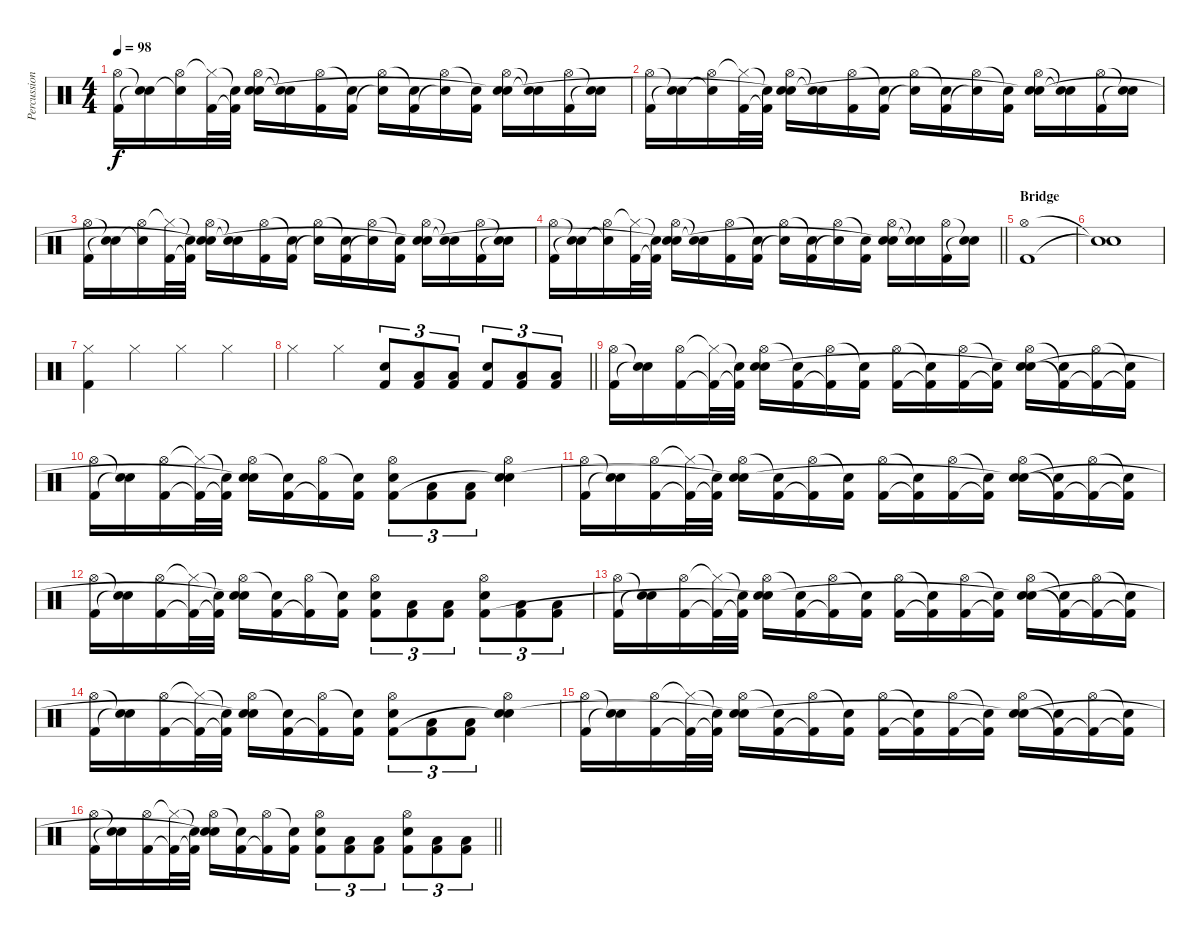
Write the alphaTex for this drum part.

\track ("Percussion" "Percussion") {instrument percussion}
\staff {score}
\articulation defaults
\ts (4 4)
\tempo 98
\clef neutral
\ks c
("Hi-Hat (open)" "Kick (hit) 2").16{dy f} ("Snare (hit)"{t} "Snare (hit)"{t}).16 ("Hi-Hat (open)" "Snare (hit)"{t}).16 ("Hi-Hat (closed)"{t} "Kick (hit) 2").32 ("Snare (hit)"{t} "Kick (hit) 2"{t}).32 ("Hi-Hat (open)" "Electric Snare (hit)" "Snare (hit)"{t}).16 ("Snare (hit)"{t} "Snare (hit)"{t}).16 ("Hi-Hat (open)" "Kick (hit) 2").16 ("Snare (hit)"{t} "Kick (hit) 2").16 ("Hi-Hat (open)" "Snare (hit)"{t}).16 ("Snare (hit)"{t} "Kick (hit) 2").16 ("Hi-Hat (open)" "Snare (hit)"{t}).16 ("Snare (hit)"{t} "Kick (hit) 2").16 ("Hi-Hat (open)" "Electric Snare (hit)" "Snare (hit)"{t}).16 ("Snare (hit)"{t} "Snare (hit)"{t}).16 ("Hi-Hat (open)" "Kick (hit) 2").16 ("Snare (hit)"{t} "Snare (hit)"{t}).16 |
("Hi-Hat (open)" "Kick (hit) 2").16 ("Snare (hit)"{t} "Snare (hit)"{t}).16 ("Hi-Hat (open)" "Snare (hit)"{t}).16 ("Hi-Hat (closed)"{t} "Kick (hit) 2").32 ("Snare (hit)"{t} "Kick (hit) 2"{t}).32 ("Hi-Hat (open)" "Electric Snare (hit)" "Snare (hit)"{t}).16 ("Snare (hit)"{t} "Snare (hit)"{t}).16 ("Hi-Hat (open)" "Kick (hit) 2").16 ("Snare (hit)"{t} "Kick (hit) 2").16 ("Hi-Hat (open)" "Snare (hit)"{t}).16 ("Snare (hit)"{t} "Kick (hit) 2").16 ("Hi-Hat (open)" "Snare (hit)"{t}).16 ("Snare (hit)"{t} "Kick (hit) 2").16 ("Hi-Hat (open)" "Electric Snare (hit)" "Snare (hit)"{t}).16 ("Snare (hit)"{t} "Snare (hit)"{t}).16 ("Hi-Hat (open)" "Kick (hit) 2").16 ("Snare (hit)"{t} "Snare (hit)"{t}).16 |
("Hi-Hat (open)" "Kick (hit) 2").16 ("Snare (hit)"{t} "Snare (hit)"{t}).16 ("Hi-Hat (open)" "Snare (hit)"{t}).16 ("Hi-Hat (closed)"{t} "Kick (hit) 2").32 ("Snare (hit)"{t} "Kick (hit) 2"{t}).32 ("Hi-Hat (open)" "Electric Snare (hit)" "Snare (hit)"{t}).16 ("Snare (hit)"{t} "Snare (hit)"{t}).16 ("Hi-Hat (open)" "Kick (hit) 2").16 ("Snare (hit)"{t} "Kick (hit) 2").16 ("Hi-Hat (open)" "Snare (hit)"{t}).16 ("Snare (hit)"{t} "Kick (hit) 2").16 ("Hi-Hat (open)" "Snare (hit)"{t}).16 ("Snare (hit)"{t} "Kick (hit) 2").16 ("Hi-Hat (open)" "Electric Snare (hit)" "Snare (hit)"{t}).16 ("Snare (hit)"{t} "Snare (hit)"{t}).16 ("Hi-Hat (open)" "Kick (hit) 2").16 ("Snare (hit)"{t} "Snare (hit)"{t}).16 |
\barLineRight lightlight
("Hi-Hat (open)" "Kick (hit) 2").16 ("Snare (hit)"{t} "Snare (hit)"{t}).16 ("Hi-Hat (open)" "Snare (hit)"{t}).16 ("Hi-Hat (closed)"{t} "Kick (hit) 2").32 ("Snare (hit)"{t} "Kick (hit) 2"{t}).32 ("Hi-Hat (open)" "Electric Snare (hit)" "Snare (hit)"{t}).16 ("Snare (hit)"{t} "Snare (hit)"{t}).16 ("Hi-Hat (open)" "Kick (hit) 2").16 ("Snare (hit)"{t} "Kick (hit) 2").16 ("Hi-Hat (open)" "Snare (hit)"{t}).16 ("Snare (hit)"{t} "Kick (hit) 2").16 ("Hi-Hat (open)" "Snare (hit)"{t}).16 ("Snare (hit)"{t} "Kick (hit) 2").16 ("Hi-Hat (open)" "Electric Snare (hit)" "Snare (hit)"{t}).16 ("Snare (hit)"{t} "Snare (hit)"{t}).16 ("Hi-Hat (open)" "Kick (hit) 2").16 ("Snare (hit)"{t} "Snare (hit)"{t}).16 |
\section ("" "Bridge")
("Hi-Hat (open)" "Kick (hit) 2").1 |
("Snare (hit)"{t} "Snare (hit)"{t}).1 |
("Hi-Hat (closed)" "Kick (hit) 2").4 "Hi-Hat (closed)".4 "Hi-Hat (closed)".4 "Hi-Hat (closed)".4 |
\barLineRight lightlight "Hi-Hat (closed)".4 "Hi-Hat (closed)".4
("Snare (hit) 2" "Kick (hit) 2").8{tu (3 2)} ("Low Tom (hit)" "Kick (hit) 2").8{tu (3 2)} ("Low Tom (hit)" "Kick (hit) 2").8{tu (3 2)} ("Snare (hit) 2" "Kick (hit) 2").8{tu (3 2)} ("Low Tom (hit)" "Kick (hit) 2").8{tu (3 2)} ("Low Tom (hit)" "Kick (hit) 2").8{tu (3 2)} |
("Hi-Hat (open)" "Kick (hit) 2").16 ("Snare (hit)"{t} "Snare (hit)"{t}).16 ("Hi-Hat (open)" "Kick (hit) 2").16 ("Hi-Hat (closed)"{t} "Kick (hit) 2"{t}).32 ("Snare (hit)"{t} "Kick (hit) 2"{t}).32 ("Hi-Hat (open)" "Electric Snare (hit)" "Snare (hit)").16 ("Snare (hit)"{t} "Kick (hit) 2").16 ("Hi-Hat (open)" "Kick (hit) 2"{t}).16 ("Snare (hit)"{t} "Kick (hit) 2").16 ("Hi-Hat (open)" "Kick (hit) 2").16 ("Snare (hit)"{t} "Kick (hit) 2"{t}).16 ("Hi-Hat (open)" "Kick (hit) 2").16 ("Snare (hit)"{t} "Kick (hit) 2"{t}).16 ("Hi-Hat (open)" "Electric Snare (hit)" "Snare (hit)"{t}).16 ("Snare (hit)"{t} "Kick (hit) 2"{t}).16 ("Hi-Hat (open)" "Kick (hit) 2"{t}).16 ("Snare (hit)"{t} "Kick (hit) 2"{t}).16 |
("Hi-Hat (open)" "Kick (hit) 2").16 ("Snare (hit)"{t} "Snare (hit)"{t}).16 ("Hi-Hat (open)" "Kick (hit) 2").16 ("Hi-Hat (closed)"{t} "Kick (hit) 2"{t}).32 ("Snare (hit)"{t} "Kick (hit) 2"{t}).32 ("Hi-Hat (open)" "Electric Snare (hit)" "Snare (hit)"{t}).16 ("Snare (hit)"{t} "Kick (hit) 2").16 ("Hi-Hat (open)" "Kick (hit) 2"{t}).16 ("Snare (hit)"{t} "Kick (hit) 2").16 ("Hi-Hat (open)" "Snare (hit) 2" "Kick (hit) 2").8{tu (3 2)} ("Low Tom (hit)" "Kick (hit) 2").8{tu (3 2)} ("Low Tom (hit)" "Kick (hit) 2").8{tu (3 2)} ("Hi-Hat (open)" "Electric Snare (hit)" "Snare (hit)"{t}).4 |
("Hi-Hat (open)" "Kick (hit) 2").16 ("Snare (hit)"{t} "Snare (hit)"{t}).16 ("Hi-Hat (open)" "Kick (hit) 2").16 ("Hi-Hat (closed)"{t} "Kick (hit) 2"{t}).32 ("Snare (hit)"{t} "Kick (hit) 2"{t}).32 ("Hi-Hat (open)" "Electric Snare (hit)" "Snare (hit)"{t}).16 ("Snare (hit)"{t} "Kick (hit) 2").16 ("Hi-Hat (open)" "Kick (hit) 2"{t}).16 ("Snare (hit)"{t} "Kick (hit) 2").16 ("Hi-Hat (open)" "Kick (hit) 2").16 ("Snare (hit)"{t} "Kick (hit) 2"{t}).16 ("Hi-Hat (open)" "Kick (hit) 2").16 ("Snare (hit)"{t} "Kick (hit) 2"{t}).16 ("Hi-Hat (open)" "Electric Snare (hit)" "Snare (hit)"{t}).16 ("Snare (hit)"{t} "Kick (hit) 2"{t}).16 ("Hi-Hat (open)" "Kick (hit) 2"{t}).16 ("Snare (hit)"{t} "Kick (hit) 2"{t}).16 |
("Hi-Hat (open)" "Kick (hit) 2").16 ("Snare (hit)"{t} "Snare (hit)"{t}).16 ("Hi-Hat (open)" "Kick (hit) 2").16 ("Hi-Hat (closed)"{t} "Kick (hit) 2"{t}).32 ("Snare (hit)"{t} "Kick (hit) 2"{t}).32 ("Hi-Hat (open)" "Electric Snare (hit)" "Snare (hit)"{t}).16 ("Snare (hit)"{t} "Kick (hit) 2").16 ("Hi-Hat (open)" "Kick (hit) 2"{t}).16 ("Snare (hit)"{t} "Kick (hit) 2").16 ("Hi-Hat (open)" "Snare (hit) 2" "Kick (hit) 2").8{tu (3 2)} ("Low Tom (hit)" "Kick (hit) 2").8{tu (3 2)} ("Low Tom (hit)" "Kick (hit) 2").8{tu (3 2)} ("Hi-Hat (open)" "Snare (hit) 2" "Kick (hit) 2").8{tu (3 2)} ("Low Tom (hit)" "Kick (hit) 2").8{tu (3 2)} ("Low Tom (hit)" "Kick (hit) 2").8{tu (3 2)} |
("Hi-Hat (open)" "Kick (hit) 2").16 ("Snare (hit)"{t} "Snare (hit)"{t}).16 ("Hi-Hat (open)" "Kick (hit) 2").16 ("Hi-Hat (closed)"{t} "Kick (hit) 2"{t}).32 ("Snare (hit)"{t} "Kick (hit) 2"{t}).32 ("Hi-Hat (open)" "Electric Snare (hit)" "Snare (hit)"{t}).16 ("Snare (hit)"{t} "Kick (hit) 2").16 ("Hi-Hat (open)" "Kick (hit) 2"{t}).16 ("Snare (hit)"{t} "Kick (hit) 2").16 ("Hi-Hat (open)" "Kick (hit) 2").16 ("Snare (hit)"{t} "Kick (hit) 2"{t}).16 ("Hi-Hat (open)" "Kick (hit) 2").16 ("Snare (hit)"{t} "Kick (hit) 2"{t}).16 ("Hi-Hat (open)" "Electric Snare (hit)" "Snare (hit)"{t}).16 ("Snare (hit)"{t} "Kick (hit) 2"{t}).16 ("Hi-Hat (open)" "Kick (hit) 2"{t}).16 ("Snare (hit)"{t} "Kick (hit) 2"{t}).16 |
("Hi-Hat (open)" "Kick (hit) 2").16 ("Snare (hit)"{t} "Snare (hit)"{t}).16 ("Hi-Hat (open)" "Kick (hit) 2").16 ("Hi-Hat (closed)"{t} "Kick (hit) 2"{t}).32 ("Snare (hit)"{t} "Kick (hit) 2"{t}).32 ("Hi-Hat (open)" "Electric Snare (hit)" "Snare (hit)"{t}).16 ("Snare (hit)"{t} "Kick (hit) 2").16 ("Hi-Hat (open)" "Kick (hit) 2"{t}).16 ("Snare (hit)"{t} "Kick (hit) 2").16 ("Hi-Hat (open)" "Snare (hit) 2" "Kick (hit) 2").8{tu (3 2)} ("Low Tom (hit)" "Kick (hit) 2").8{tu (3 2)} ("Low Tom (hit)" "Kick (hit) 2").8{tu (3 2)} ("Hi-Hat (open)" "Electric Snare (hit)" "Snare (hit)"{t}).4 |
("Hi-Hat (open)" "Kick (hit) 2").16 ("Snare (hit)"{t} "Snare (hit)"{t}).16 ("Hi-Hat (open)" "Kick (hit) 2").16 ("Hi-Hat (closed)"{t} "Kick (hit) 2"{t}).32 ("Snare (hit)"{t} "Kick (hit) 2"{t}).32 ("Hi-Hat (open)" "Electric Snare (hit)" "Snare (hit)"{t}).16 ("Snare (hit)"{t} "Kick (hit) 2").16 ("Hi-Hat (open)" "Kick (hit) 2"{t}).16 ("Snare (hit)"{t} "Kick (hit) 2").16 ("Hi-Hat (open)" "Kick (hit) 2").16 ("Snare (hit)"{t} "Kick (hit) 2"{t}).16 ("Hi-Hat (open)" "Kick (hit) 2").16 ("Snare (hit)"{t} "Kick (hit) 2"{t}).16 ("Hi-Hat (open)" "Electric Snare (hit)" "Snare (hit)"{t}).16 ("Snare (hit)"{t} "Kick (hit) 2"{t}).16 ("Hi-Hat (open)" "Kick (hit) 2"{t}).16 ("Snare (hit)"{t} "Kick (hit) 2"{t}).16 |
\barLineRight lightlight
("Hi-Hat (open)" "Kick (hit) 2").16 ("Snare (hit)"{t} "Snare (hit)"{t}).16 ("Hi-Hat (open)" "Kick (hit) 2").16 ("Hi-Hat (closed)"{t} "Kick (hit) 2"{t}).32 ("Snare (hit)"{t} "Kick (hit) 2"{t}).32 ("Hi-Hat (open)" "Electric Snare (hit)" "Snare (hit)"{t}).16 ("Snare (hit)"{t} "Kick (hit) 2").16 ("Hi-Hat (open)" "Kick (hit) 2"{t}).16 ("Snare (hit)"{t} "Kick (hit) 2").16 ("Hi-Hat (open)" "Snare (hit) 2" "Kick (hit) 2").8{tu (3 2)} ("Low Tom (hit)" "Kick (hit) 2").8{tu (3 2)} ("Low Tom (hit)" "Kick (hit) 2").8{tu (3 2)} ("Hi-Hat (open)" "Snare (hit) 2" "Kick (hit) 2").8{tu (3 2)} ("Low Tom (hit)" "Kick (hit) 2").8{tu (3 2)} ("Low Tom (hit)" "Kick (hit) 2").8{tu (3 2)}
